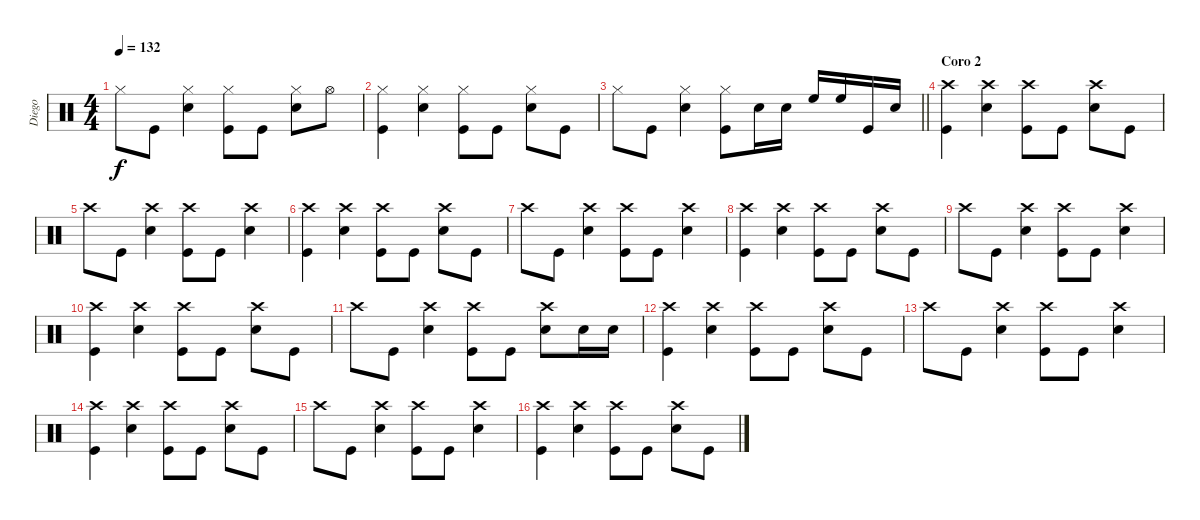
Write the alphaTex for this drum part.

\track ("Diego" "Diego") {instrument percussion}
\staff {score}
\articulation defaults
\ts (4 4)
\tempo 132
\clef neutral
\ks c "Hi-Hat (closed)".8{dy f} "Kick (hit)".8
("Hi-Hat (closed)" "Snare (hit) 2").4 ("Hi-Hat (closed)" "Kick (hit)").8 "Kick (hit)".8 ("Hi-Hat (closed)" "Snare (hit) 2").8 "Hi-Hat (open)".8 |
("Hi-Hat (closed)" "Kick (hit)").4 ("Hi-Hat (closed)" "Snare (hit) 2").4 ("Hi-Hat (closed)" "Kick (hit)").8 "Kick (hit)".8 ("Hi-Hat (closed)" "Snare (hit) 2").8 "Kick (hit)".8 |
\barLineRight lightlight "Hi-Hat (closed)".8 "Kick (hit)".8
("Hi-Hat (closed)" "Snare (hit) 2").4 ("Hi-Hat (closed)" "Kick (hit)").8 "Snare (hit) 2".16 "Snare (hit) 2".16 "High Floor Tom (hit)".16 "High Floor Tom (hit)".16 "Kick (hit)".16 "Snare (hit) 2".16 |
\section ("" "Coro 2")
("Crash high (hit)" "Kick (hit)").4 ("Crash high (hit)" "Snare (hit) 2").4 ("Crash high (hit)" "Kick (hit)").8 "Kick (hit)".8 ("Crash high (hit)" "Snare (hit) 2").8 "Kick (hit)".8 |
"Crash high (hit)".8 "Kick (hit)".8 ("Crash high (hit)" "Snare (hit) 2").4 ("Crash high (hit)" "Kick (hit)").8 "Kick (hit)".8 ("Crash high (hit)" "Snare (hit) 2").4 |
("Crash high (hit)" "Kick (hit)").4 ("Crash high (hit)" "Snare (hit) 2").4 ("Crash high (hit)" "Kick (hit)").8 "Kick (hit)".8 ("Crash high (hit)" "Snare (hit) 2").8 "Kick (hit)".8 |
"Crash high (hit)".8 "Kick (hit)".8 ("Crash high (hit)" "Snare (hit) 2").4 ("Crash high (hit)" "Kick (hit)").8 "Kick (hit)".8 ("Crash high (hit)" "Snare (hit) 2").4 |
("Crash high (hit)" "Kick (hit)").4 ("Crash high (hit)" "Snare (hit) 2").4 ("Crash high (hit)" "Kick (hit)").8 "Kick (hit)".8 ("Crash high (hit)" "Snare (hit) 2").8 "Kick (hit)".8 |
"Crash high (hit)".8 "Kick (hit)".8 ("Crash high (hit)" "Snare (hit) 2").4 ("Crash high (hit)" "Kick (hit)").8 "Kick (hit)".8 ("Crash high (hit)" "Snare (hit) 2").4 |
("Crash high (hit)" "Kick (hit)").4 ("Crash high (hit)" "Snare (hit) 2").4 ("Crash high (hit)" "Kick (hit)").8 "Kick (hit)".8 ("Crash high (hit)" "Snare (hit) 2").8 "Kick (hit)".8 |
"Crash high (hit)".8 "Kick (hit)".8 ("Crash high (hit)" "Snare (hit) 2").4 ("Crash high (hit)" "Kick (hit)").8 "Kick (hit)".8 ("Crash high (hit)" "Snare (hit) 2").8 "Snare (hit) 2".16 "Snare (hit) 2".16 |
("Crash high (hit)" "Kick (hit)").4 ("Crash high (hit)" "Snare (hit) 2").4 ("Crash high (hit)" "Kick (hit)").8 "Kick (hit)".8 ("Crash high (hit)" "Snare (hit) 2").8 "Kick (hit)".8 |
"Crash high (hit)".8 "Kick (hit)".8 ("Crash high (hit)" "Snare (hit) 2").4 ("Crash high (hit)" "Kick (hit)").8 "Kick (hit)".8 ("Crash high (hit)" "Snare (hit) 2").4 |
("Crash high (hit)" "Kick (hit)").4 ("Crash high (hit)" "Snare (hit) 2").4 ("Crash high (hit)" "Kick (hit)").8 "Kick (hit)".8 ("Crash high (hit)" "Snare (hit) 2").8 "Kick (hit)".8 |
"Crash high (hit)".8 "Kick (hit)".8 ("Crash high (hit)" "Snare (hit) 2").4 ("Crash high (hit)" "Kick (hit)").8 "Kick (hit)".8 ("Crash high (hit)" "Snare (hit) 2").4 |
("Crash high (hit)" "Kick (hit)").4 ("Crash high (hit)" "Snare (hit) 2").4 ("Crash high (hit)" "Kick (hit)").8 "Kick (hit)".8 ("Crash high (hit)" "Snare (hit) 2").8 "Kick (hit)".8
